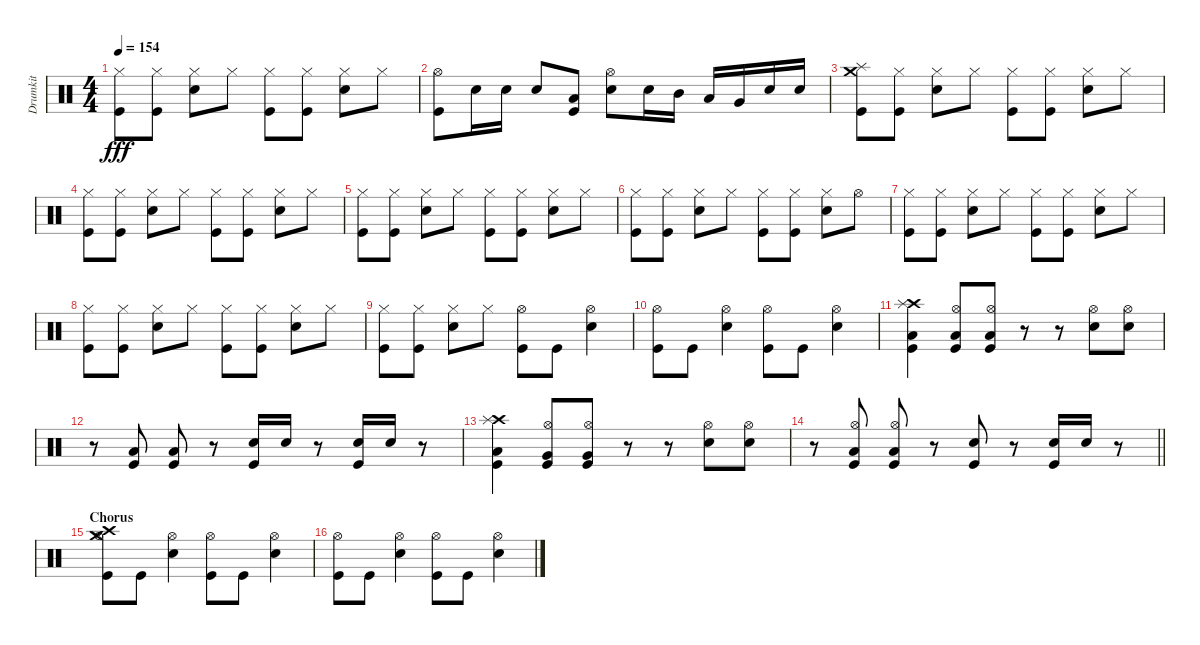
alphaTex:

\track ("Drumkit" "Drumkit") {instrument percussion}
\staff {score}
\articulation defaults
\ts (4 4)
\tempo 154
\clef neutral
\ks c
("Hi-Hat (closed)" "Kick (hit)").8{dy fff} ("Hi-Hat (closed)" "Kick (hit)").8 ("Hi-Hat (closed)" "Snare (hit) 2").8 "Hi-Hat (closed)".8 ("Hi-Hat (closed)" "Kick (hit)").8 ("Hi-Hat (closed)" "Kick (hit)").8 ("Hi-Hat (closed)" "Snare (hit) 2").8 "Hi-Hat (closed)".8 |
("Hi-Hat (open)" "Kick (hit)").8 "Snare (hit) 2".16 "Snare (hit) 2".16 "Snare (hit) 2".8 ("Low Tom (hit)" "Kick (hit)").8 ("Hi-Hat (open)" "Snare (hit) 2").8 "Snare (hit) 2".16 "Mid Tom (hit)".16 "Low Tom (hit)".16 "Very Low Tom (hit)".16 "Snare (hit) 2".16 "Snare (hit) 2".16 |
("Splash (hit)" "Crash medium (hit)" "Kick (hit)").8 ("Hi-Hat (closed)" "Kick (hit)").8 ("Hi-Hat (closed)" "Snare (hit) 2").8 "Hi-Hat (closed)".8 ("Hi-Hat (closed)" "Kick (hit)").8 ("Hi-Hat (closed)" "Kick (hit)").8 ("Hi-Hat (closed)" "Snare (hit) 2").8 "Hi-Hat (closed)".8 |
("Hi-Hat (closed)" "Kick (hit)").8 ("Hi-Hat (closed)" "Kick (hit)").8 ("Hi-Hat (closed)" "Snare (hit) 2").8 "Hi-Hat (closed)".8 ("Hi-Hat (closed)" "Kick (hit)").8 ("Hi-Hat (closed)" "Kick (hit)").8 ("Hi-Hat (closed)" "Snare (hit) 2").8 "Hi-Hat (closed)".8 |
("Hi-Hat (closed)" "Kick (hit)").8 ("Hi-Hat (closed)" "Kick (hit)").8 ("Hi-Hat (closed)" "Snare (hit) 2").8 "Hi-Hat (closed)".8 ("Hi-Hat (closed)" "Kick (hit)").8 ("Hi-Hat (closed)" "Kick (hit)").8 ("Hi-Hat (closed)" "Snare (hit) 2").8 "Hi-Hat (closed)".8 |
("Hi-Hat (closed)" "Kick (hit)").8 ("Hi-Hat (closed)" "Kick (hit)").8 ("Hi-Hat (closed)" "Snare (hit) 2").8 "Hi-Hat (closed)".8 ("Hi-Hat (closed)" "Kick (hit)").8 ("Hi-Hat (closed)" "Kick (hit)").8 ("Hi-Hat (closed)" "Snare (hit) 2").8 "Hi-Hat (open)".8 |
("Hi-Hat (closed)" "Kick (hit)").8 ("Hi-Hat (closed)" "Kick (hit)").8 ("Hi-Hat (closed)" "Snare (hit) 2").8 "Hi-Hat (closed)".8 ("Hi-Hat (closed)" "Kick (hit)").8 ("Hi-Hat (closed)" "Kick (hit)").8 ("Hi-Hat (closed)" "Snare (hit) 2").8 "Hi-Hat (closed)".8 |
("Hi-Hat (closed)" "Kick (hit)").8 ("Hi-Hat (closed)" "Kick (hit)").8 ("Hi-Hat (closed)" "Snare (hit) 2").8 "Hi-Hat (closed)".8 ("Hi-Hat (closed)" "Kick (hit)").8 ("Hi-Hat (closed)" "Kick (hit)").8 ("Hi-Hat (closed)" "Snare (hit) 2").8 "Hi-Hat (closed)".8 |
("Hi-Hat (closed)" "Kick (hit)").8 ("Hi-Hat (closed)" "Kick (hit)").8 ("Hi-Hat (closed)" "Snare (hit) 2").8 "Hi-Hat (closed)".8 ("Hi-Hat (open)" "Kick (hit)").8 "Kick (hit)".8 ("Hi-Hat (open)" "Snare (hit) 2").4 |
("Hi-Hat (open)" "Kick (hit)").8 "Kick (hit)".8 ("Hi-Hat (open)" "Snare (hit) 2").4 ("Hi-Hat (open)" "Kick (hit)").8 "Kick (hit)".8 ("Hi-Hat (open)" "Snare (hit) 2").4 |
("Crash high (hit)" "Splash (hit)" "Low Tom (hit)" "Kick (hit)").4 ("Hi-Hat (open)" "Low Tom (hit)" "Kick (hit)").8 ("Hi-Hat (open)" "Low Tom (hit)" "Kick (hit)").8 r.8 r.8 ("Hi-Hat (open)" "Snare (hit) 2").8 ("Hi-Hat (open)" "Snare (hit) 2").8 |
r.8 ("Low Tom (hit)" "Kick (hit)").8 ("Low Tom (hit)" "Kick (hit)").8 r.8 ("Snare (hit) 2" "Kick (hit)").16 "Snare (hit) 2".16 r.8 ("Snare (hit) 2" "Kick (hit)").16 "Snare (hit) 2".16 r.8 |
("Crash high (hit)" "Splash (hit)" "Low Tom (hit)" "Kick (hit)").4 ("Hi-Hat (open)" "Very Low Tom (hit)" "Kick (hit)").8 ("Hi-Hat (open)" "Very Low Tom (hit)" "Kick (hit)").8 r.8 r.8 ("Hi-Hat (open)" "Snare (hit) 2").8 ("Hi-Hat (open)" "Snare (hit) 2").8 |
\barLineRight lightlight
r.8 ("Hi-Hat (open)" "Low Tom (hit)" "Kick (hit)").8 ("Hi-Hat (open)" "Low Tom (hit)" "Kick (hit)").8 r.8 ("Snare (hit) 2" "Kick (hit)").8 r.8 ("Snare (hit) 2" "Kick (hit)").16 "Snare (hit) 2".16 r.8 |
\section ("" "Chorus")
("Crash high (hit)" "Hi-Hat (open)" "Crash medium (hit)" "Kick (hit)").8 "Kick (hit)".8 ("Hi-Hat (open)" "Snare (hit) 2").4 ("Hi-Hat (open)" "Kick (hit)").8 "Kick (hit)".8 ("Hi-Hat (open)" "Snare (hit) 2").4 |
("Hi-Hat (open)" "Kick (hit)").8 "Kick (hit)".8 ("Hi-Hat (open)" "Snare (hit) 2").4 ("Hi-Hat (open)" "Kick (hit)").8 "Kick (hit)".8 ("Hi-Hat (open)" "Snare (hit) 2").4
